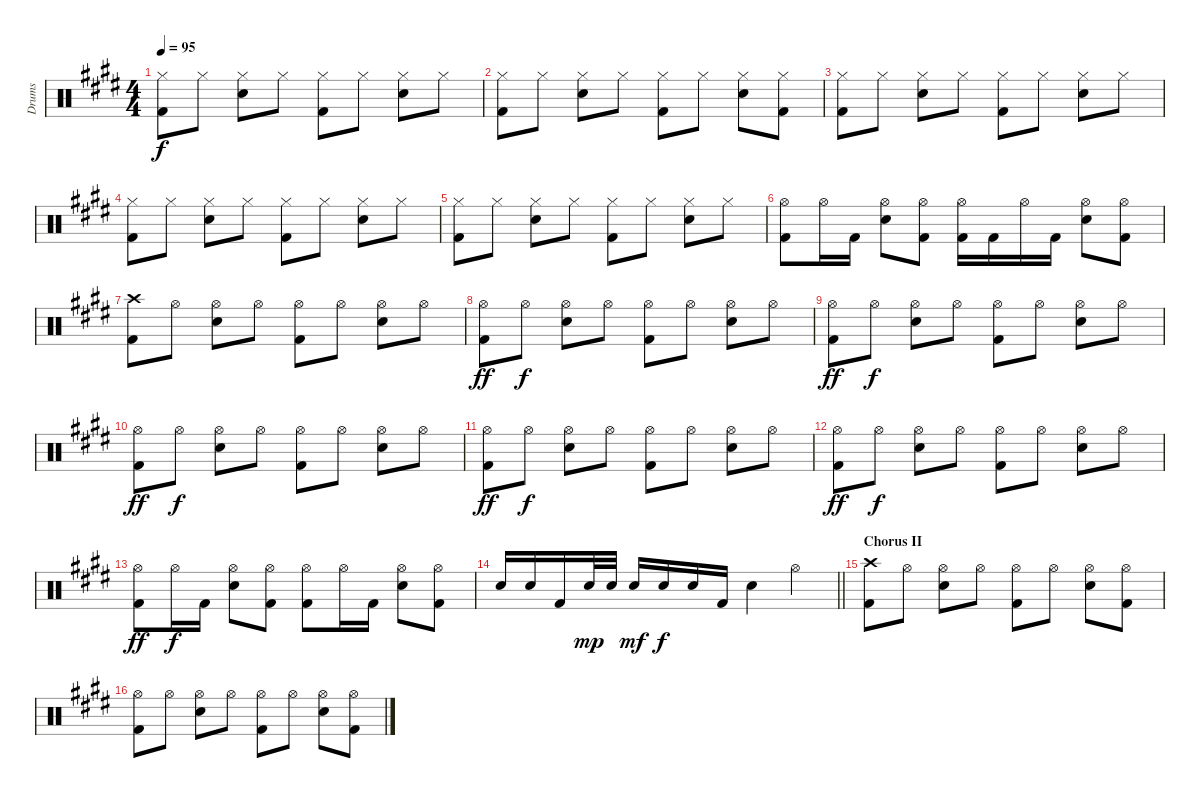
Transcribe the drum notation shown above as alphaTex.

\track ("Drums" "Drums") {instrument percussion}
\staff {score}
\articulation defaults
\ts (4 4)
\tempo 95
\clef neutral
\ks e
("Hi-Hat (closed)" "Kick (hit) 2").8{dy f} "Hi-Hat (closed)".8 ("Hi-Hat (closed)" "Snare (hit) 2").8 "Hi-Hat (closed)".8 ("Hi-Hat (closed)" "Kick (hit) 2").8 "Hi-Hat (closed)".8 ("Hi-Hat (closed)" "Snare (hit) 2").8 "Hi-Hat (closed)".8 |
("Hi-Hat (closed)" "Kick (hit) 2").8 "Hi-Hat (closed)".8 ("Hi-Hat (closed)" "Snare (hit) 2").8 "Hi-Hat (closed)".8 ("Hi-Hat (closed)" "Kick (hit) 2").8 "Hi-Hat (closed)".8 ("Hi-Hat (closed)" "Snare (hit) 2").8 ("Hi-Hat (closed)" "Kick (hit) 2").8 |
("Hi-Hat (closed)" "Kick (hit) 2").8 "Hi-Hat (closed)".8 ("Hi-Hat (closed)" "Snare (hit) 2").8 "Hi-Hat (closed)".8 ("Hi-Hat (closed)" "Kick (hit) 2").8 "Hi-Hat (closed)".8 ("Hi-Hat (closed)" "Snare (hit) 2").8 "Hi-Hat (closed)".8 |
("Hi-Hat (closed)" "Kick (hit) 2").8 "Hi-Hat (closed)".8 ("Hi-Hat (closed)" "Snare (hit) 2").8 "Hi-Hat (closed)".8 ("Hi-Hat (closed)" "Kick (hit) 2").8 "Hi-Hat (closed)".8 ("Hi-Hat (closed)" "Snare (hit) 2").8 "Hi-Hat (closed)".8 |
("Hi-Hat (closed)" "Kick (hit) 2").8 "Hi-Hat (closed)".8 ("Hi-Hat (closed)" "Snare (hit) 2").8 "Hi-Hat (closed)".8 ("Hi-Hat (closed)" "Kick (hit) 2").8 "Hi-Hat (closed)".8 ("Hi-Hat (closed)" "Snare (hit) 2").8 "Hi-Hat (closed)".8 |
("Hi-Hat (open)" "Kick (hit) 2").8 "Hi-Hat (open)".16 "Kick (hit) 2".16 ("Hi-Hat (open)" "Snare (hit) 2").8 ("Hi-Hat (open)" "Kick (hit) 2").8 ("Hi-Hat (open)" "Kick (hit) 2").16 "Kick (hit) 2".16 "Hi-Hat (open)".16 "Kick (hit) 2".16 ("Hi-Hat (open)" "Snare (hit) 2").8 ("Hi-Hat (open)" "Kick (hit) 2").8 |
("Crash high (hit)" "Kick (hit) 2").8 "Hi-Hat (open)".8 ("Hi-Hat (open)" "Snare (hit) 2").8 "Hi-Hat (open)".8 ("Hi-Hat (open)" "Kick (hit) 2").8 "Hi-Hat (open)".8 ("Hi-Hat (open)" "Snare (hit) 2").8 "Hi-Hat (open)".8 |
("Hi-Hat (open)" "Kick (hit) 2").8{dy ff} "Hi-Hat (open)".8{dy f} ("Hi-Hat (open)" "Snare (hit) 2").8 "Hi-Hat (open)".8 ("Hi-Hat (open)" "Kick (hit) 2").8 "Hi-Hat (open)".8 ("Hi-Hat (open)" "Snare (hit) 2").8 "Hi-Hat (open)".8 |
("Hi-Hat (open)" "Kick (hit) 2").8{dy ff} "Hi-Hat (open)".8{dy f} ("Hi-Hat (open)" "Snare (hit) 2").8 "Hi-Hat (open)".8 ("Hi-Hat (open)" "Kick (hit) 2").8 "Hi-Hat (open)".8 ("Hi-Hat (open)" "Snare (hit) 2").8 "Hi-Hat (open)".8 |
("Hi-Hat (open)" "Kick (hit) 2").8{dy ff} "Hi-Hat (open)".8{dy f} ("Hi-Hat (open)" "Snare (hit) 2").8 "Hi-Hat (open)".8 ("Hi-Hat (open)" "Kick (hit) 2").8 "Hi-Hat (open)".8 ("Hi-Hat (open)" "Snare (hit) 2").8 "Hi-Hat (open)".8 |
("Hi-Hat (open)" "Kick (hit) 2").8{dy ff} "Hi-Hat (open)".8{dy f} ("Hi-Hat (open)" "Snare (hit) 2").8 "Hi-Hat (open)".8 ("Hi-Hat (open)" "Kick (hit) 2").8 "Hi-Hat (open)".8 ("Hi-Hat (open)" "Snare (hit) 2").8 "Hi-Hat (open)".8 |
("Hi-Hat (open)" "Kick (hit) 2").8{dy ff} "Hi-Hat (open)".8{dy f} ("Hi-Hat (open)" "Snare (hit) 2").8 "Hi-Hat (open)".8 ("Hi-Hat (open)" "Kick (hit) 2").8 "Hi-Hat (open)".8 ("Hi-Hat (open)" "Snare (hit) 2").8 "Hi-Hat (open)".8 |
("Hi-Hat (open)" "Kick (hit) 2").8{dy ff} "Hi-Hat (open)".16{dy f} "Kick (hit) 2".16 ("Hi-Hat (open)" "Snare (hit) 2").8 ("Hi-Hat (open)" "Kick (hit) 2").8 ("Hi-Hat (open)" "Kick (hit) 2").8 "Hi-Hat (open)".16 "Kick (hit) 2".16 ("Hi-Hat (open)" "Snare (hit) 2").8 ("Hi-Hat (open)" "Kick (hit) 2").8 |
\barLineRight lightlight "Snare (hit) 2".16 "Snare (hit) 2".16 "Kick (hit) 2".16 "Snare (hit) 2".32{dy mp} "Snare (hit) 2".32 "Snare (hit) 2".16{dy mf} "Snare (hit) 2".16{dy f} "Snare (hit) 2".16 "Kick (hit) 2".16 "Snare (hit) 2".4 "Hi-Hat (open)".4
|
\section ("" "Chorus II")
("Crash high (hit)" "Kick (hit) 2").8 "Hi-Hat (open)".8 ("Hi-Hat (open)" "Snare (hit) 2").8 "Hi-Hat (open)".8 ("Hi-Hat (open)" "Kick (hit) 2").8 "Hi-Hat (open)".8 ("Hi-Hat (open)" "Snare (hit) 2").8 ("Hi-Hat (open)" "Kick (hit) 2").8 |
("Hi-Hat (open)" "Kick (hit) 2").8 "Hi-Hat (open)".8 ("Hi-Hat (open)" "Snare (hit) 2").8 "Hi-Hat (open)".8 ("Hi-Hat (open)" "Kick (hit) 2").8 "Hi-Hat (open)".8 ("Hi-Hat (open)" "Snare (hit) 2").8 ("Hi-Hat (open)" "Kick (hit) 2").8
